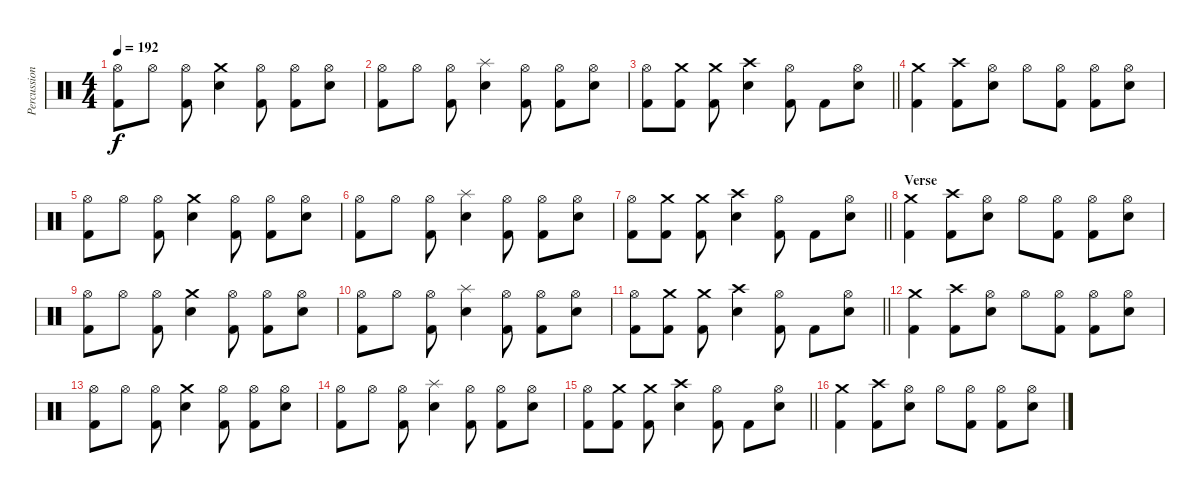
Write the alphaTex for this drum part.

\track ("Percussion" "Percussion") {instrument percussion}
\staff {score}
\articulation defaults
\ts (4 4)
\tempo 192
\clef neutral
\ks c
("Hi-Hat (open)" "Kick (hit) 2").8{dy f} "Hi-Hat (open)".8 ("Hi-Hat (open)" "Kick (hit) 2").8 ("Crash medium (hit)" "Electric Snare (hit)").4 ("Hi-Hat (open)" "Kick (hit) 2").8 ("Hi-Hat (open)" "Kick (hit) 2").8 ("Hi-Hat (open)" "Electric Snare (hit)").8 |
("Hi-Hat (open)" "Kick (hit) 2").8 "Hi-Hat (open)".8 ("Hi-Hat (open)" "Kick (hit) 2").8 ("Splash (hit)" "Electric Snare (hit)").4 ("Hi-Hat (open)" "Kick (hit) 2").8 ("Hi-Hat (open)" "Kick (hit) 2").8 ("Hi-Hat (open)" "Electric Snare (hit)").8 |
\barLineRight lightlight
("Hi-Hat (open)" "Kick (hit) 2").8 ("Crash medium (hit)" "Kick (hit) 2").8 ("Crash medium (hit)" "Kick (hit) 2").8 ("Crash high (hit)" "Electric Snare (hit)").4 ("Hi-Hat (open)" "Kick (hit) 2").8 "Kick (hit) 2".8 ("Hi-Hat (open)" "Electric Snare (hit)").8 |
("Crash medium (hit)" "Kick (hit) 2").4 ("Crash high (hit)" "Kick (hit) 2").8 ("Hi-Hat (open)" "Electric Snare (hit)").8 "Hi-Hat (open)".8 ("Hi-Hat (open)" "Kick (hit) 2").8 ("Hi-Hat (open)" "Kick (hit) 2").8 ("Hi-Hat (open)" "Electric Snare (hit)").8 |
("Hi-Hat (open)" "Kick (hit) 2").8 "Hi-Hat (open)".8 ("Hi-Hat (open)" "Kick (hit) 2").8 ("Crash medium (hit)" "Electric Snare (hit)").4 ("Hi-Hat (open)" "Kick (hit) 2").8 ("Hi-Hat (open)" "Kick (hit) 2").8 ("Hi-Hat (open)" "Electric Snare (hit)").8 |
("Hi-Hat (open)" "Kick (hit) 2").8 "Hi-Hat (open)".8 ("Hi-Hat (open)" "Kick (hit) 2").8 ("Splash (hit)" "Electric Snare (hit)").4 ("Hi-Hat (open)" "Kick (hit) 2").8 ("Hi-Hat (open)" "Kick (hit) 2").8 ("Hi-Hat (open)" "Electric Snare (hit)").8 |
\barLineRight lightlight
("Hi-Hat (open)" "Kick (hit) 2").8 ("Crash medium (hit)" "Kick (hit) 2").8 ("Crash medium (hit)" "Kick (hit) 2").8 ("Crash high (hit)" "Electric Snare (hit)").4 ("Hi-Hat (open)" "Kick (hit) 2").8 "Kick (hit) 2".8 ("Hi-Hat (open)" "Electric Snare (hit)").8 |
\section ("" "Verse")
("Crash medium (hit)" "Kick (hit) 2").4 ("Crash high (hit)" "Kick (hit) 2").8 ("Hi-Hat (open)" "Electric Snare (hit)").8 "Hi-Hat (open)".8 ("Hi-Hat (open)" "Kick (hit) 2").8 ("Hi-Hat (open)" "Kick (hit) 2").8 ("Hi-Hat (open)" "Electric Snare (hit)").8 |
("Hi-Hat (open)" "Kick (hit) 2").8 "Hi-Hat (open)".8 ("Hi-Hat (open)" "Kick (hit) 2").8 ("Crash medium (hit)" "Electric Snare (hit)").4 ("Hi-Hat (open)" "Kick (hit) 2").8 ("Hi-Hat (open)" "Kick (hit) 2").8 ("Hi-Hat (open)" "Electric Snare (hit)").8 |
("Hi-Hat (open)" "Kick (hit) 2").8 "Hi-Hat (open)".8 ("Hi-Hat (open)" "Kick (hit) 2").8 ("Splash (hit)" "Electric Snare (hit)").4 ("Hi-Hat (open)" "Kick (hit) 2").8 ("Hi-Hat (open)" "Kick (hit) 2").8 ("Hi-Hat (open)" "Electric Snare (hit)").8 |
\barLineRight lightlight
("Hi-Hat (open)" "Kick (hit) 2").8 ("Crash medium (hit)" "Kick (hit) 2").8 ("Crash medium (hit)" "Kick (hit) 2").8 ("Crash high (hit)" "Electric Snare (hit)").4 ("Hi-Hat (open)" "Kick (hit) 2").8 "Kick (hit) 2".8 ("Hi-Hat (open)" "Electric Snare (hit)").8 |
("Crash medium (hit)" "Kick (hit) 2").4 ("Crash high (hit)" "Kick (hit) 2").8 ("Hi-Hat (open)" "Electric Snare (hit)").8 "Hi-Hat (open)".8 ("Hi-Hat (open)" "Kick (hit) 2").8 ("Hi-Hat (open)" "Kick (hit) 2").8 ("Hi-Hat (open)" "Electric Snare (hit)").8 |
("Hi-Hat (open)" "Kick (hit) 2").8 "Hi-Hat (open)".8 ("Hi-Hat (open)" "Kick (hit) 2").8 ("Crash medium (hit)" "Electric Snare (hit)").4 ("Hi-Hat (open)" "Kick (hit) 2").8 ("Hi-Hat (open)" "Kick (hit) 2").8 ("Hi-Hat (open)" "Electric Snare (hit)").8 |
("Hi-Hat (open)" "Kick (hit) 2").8 "Hi-Hat (open)".8 ("Hi-Hat (open)" "Kick (hit) 2").8 ("Splash (hit)" "Electric Snare (hit)").4 ("Hi-Hat (open)" "Kick (hit) 2").8 ("Hi-Hat (open)" "Kick (hit) 2").8 ("Hi-Hat (open)" "Electric Snare (hit)").8 |
\barLineRight lightlight
("Hi-Hat (open)" "Kick (hit) 2").8 ("Crash medium (hit)" "Kick (hit) 2").8 ("Crash medium (hit)" "Kick (hit) 2").8 ("Crash high (hit)" "Electric Snare (hit)").4 ("Hi-Hat (open)" "Kick (hit) 2").8 "Kick (hit) 2".8 ("Hi-Hat (open)" "Electric Snare (hit)").8 |
("Crash medium (hit)" "Kick (hit) 2").4 ("Crash high (hit)" "Kick (hit) 2").8 ("Hi-Hat (open)" "Electric Snare (hit)").8 "Hi-Hat (open)".8 ("Hi-Hat (open)" "Kick (hit) 2").8 ("Hi-Hat (open)" "Kick (hit) 2").8 ("Hi-Hat (open)" "Electric Snare (hit)").8
